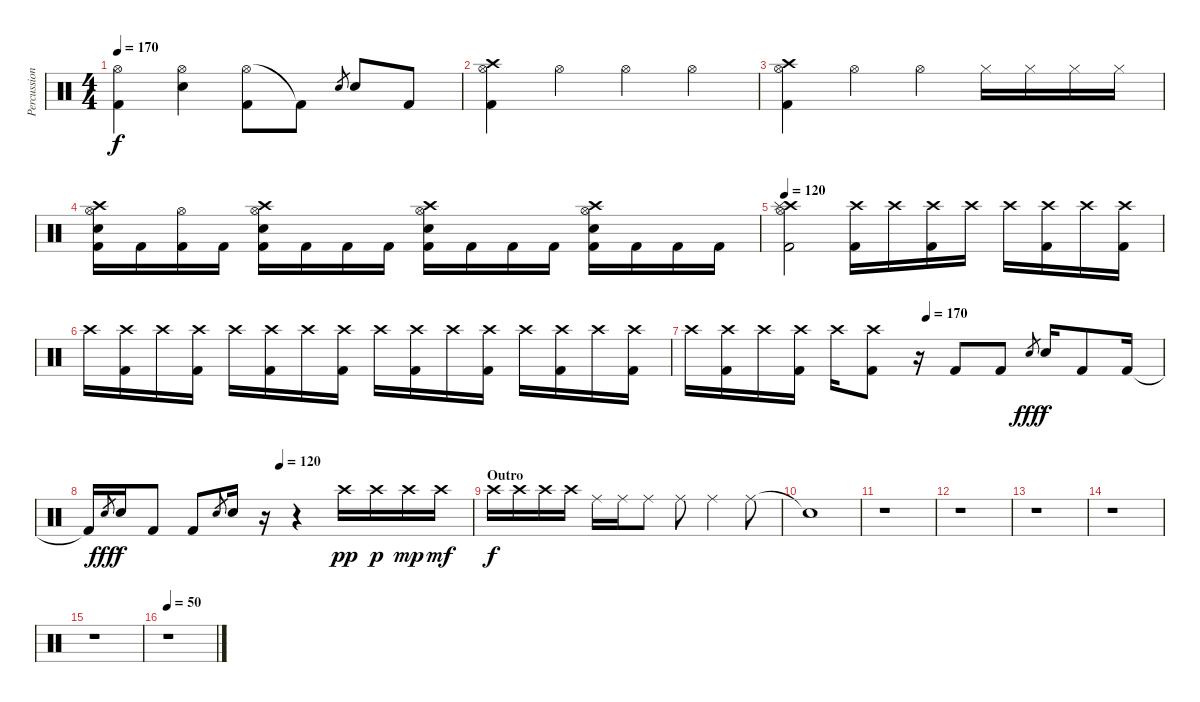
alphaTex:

\track ("Percussion - Who the fuck knows" "Percussion") {instrument percussion}
\staff {score}
\articulation defaults
\ts (4 4)
\tempo 170
\clef neutral
\ks c
("Hi-Hat (open)" "Kick (hit) 2").4{dy f} ("Hi-Hat (open)" "Snare (hit) 2").4 ("Hi-Hat (open)" "Kick (hit) 2").8 "Kick (hit) 2"{t}.8 "Snare (hit) 2".8{gr} "Snare (hit) 2".8 "Kick (hit) 2".8 |
("Crash high (hit)" "Kick (hit) 2" "Hi-Hat (open)").4 "Hi-Hat (open)".4 "Hi-Hat (open)".4 "Hi-Hat (open)".4 |
("Crash high (hit)" "Kick (hit) 2" "Hi-Hat (open)").4 "Hi-Hat (open)".4 "Hi-Hat (open)".4 "Hi-Hat (closed)".16 "Hi-Hat (closed)".16 "Hi-Hat (closed)".16 "Hi-Hat (closed)".16 |
("Crash high (hit)" "Snare (hit) 2" "Hi-Hat (open)" "Kick (hit) 2").16 "Kick (hit) 2".16 ("Hi-Hat (open)" "Kick (hit) 2").16 "Kick (hit) 2".16 ("Crash high (hit)" "Snare (hit) 2" "Hi-Hat (open)" "Kick (hit) 2").16 "Kick (hit) 2".16 "Kick (hit) 2".16 "Kick (hit) 2".16 ("Crash high (hit)" "Snare (hit) 2" "Hi-Hat (open)" "Kick (hit) 2").16 "Kick (hit) 2".16 "Kick (hit) 2".16 "Kick (hit) 2".16 ("Crash high (hit)" "Snare (hit) 2" "Hi-Hat (open)" "Kick (hit) 2").16 "Kick (hit) 2".16 "Kick (hit) 2".16 "Kick (hit) 2".16 |
\tempo 120
("Hi-Hat (open)" "Crash high (hit)" "Splash (hit)" "Kick (hit) 2").2{volume 14} ("Kick (hit) 2" "Crash high (hit)").16 "Crash high (hit)".16 ("Kick (hit) 2" "Crash high (hit)").16 "Crash high (hit)".16 "Crash high (hit)".16 ("Kick (hit) 2" "Crash high (hit)").16 "Crash high (hit)".16 ("Kick (hit) 2" "Crash high (hit)").16 |
"Crash high (hit)".16 ("Kick (hit) 2" "Crash high (hit)").16 "Crash high (hit)".16 ("Kick (hit) 2" "Crash high (hit)").16 "Crash high (hit)".16 ("Kick (hit) 2" "Crash high (hit)").16 "Crash high (hit)".16 ("Kick (hit) 2" "Crash high (hit)").16 "Crash high (hit)".16 ("Kick (hit) 2" "Crash high (hit)").16 "Crash high (hit)".16 ("Kick (hit) 2" "Crash high (hit)").16 "Crash high (hit)".16 ("Kick (hit) 2" "Crash high (hit)").16 "Crash high (hit)".16 ("Kick (hit) 2" "Crash high (hit)").16 |
\tempo (170 0.5)
"Crash high (hit)".16 ("Kick (hit) 2" "Crash high (hit)").16 "Crash high (hit)".16 ("Kick (hit) 2" "Crash high (hit)").16 "Crash high (hit)".16 ("Kick (hit) 2" "Crash high (hit)").8 r.16 "Kick (hit) 2".8 "Kick (hit) 2".8 "Snare (hit) 2".8{gr dy fff} "Snare (hit) 2".16{dy f} "Kick (hit) 2".8 "Kick (hit) 2".16 |
\tempo (120 0.5)
"Kick (hit) 2"{t}.16 "Snare (hit) 2".8{gr dy fff} "Snare (hit) 2".16{dy f} "Kick (hit) 2".8 "Kick (hit) 2".8 "Snare (hit) 2".8{gr} "Snare (hit) 2".16 r.16 r.4 "Crash high (hit)".16{dy pp} "Crash high (hit)".16{dy p} "Crash high (hit)".16{dy mp} "Crash high (hit)".16{dy mf} |
\section ("" "Outro")
"Crash high (hit)".16{dy f} "Crash high (hit)".16 "Crash high (hit)".16 "Crash high (hit)".16 "Ride (middle)".16 "Ride (middle)".16 "Ride (middle)".8 "Ride (middle)".8 "Ride (middle)".4 "Ride (middle)".8 |
"Snare (hit)"{t}.1 |
r.1 |
r.1 |
r.1 |
r.1 |
r.1 |
\tempo 50
r.1
